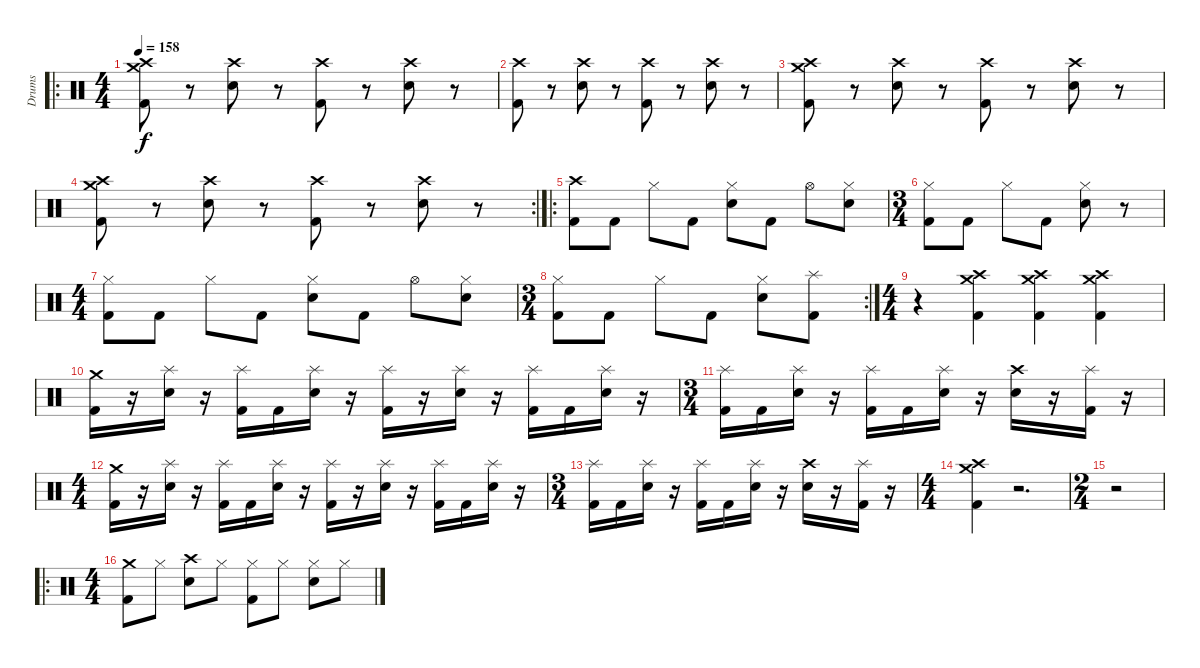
\track ("Drums" "Drums") {instrument percussion}
\staff {score}
\articulation defaults
\ro
\ts (4 4)
\tempo 158
\clef neutral
\ks c
("Crash high (hit)" "Crash medium (hit)" "Kick (hit) 2").8{dy f} r.8 ("Crash high (hit)" "Snare (hit) 2").8 r.8 ("Crash high (hit)" "Kick (hit) 2").8 r.8 ("Crash high (hit)" "Snare (hit) 2").8 r.8 |
("Crash high (hit)" "Kick (hit) 2").8 r.8 ("Crash high (hit)" "Snare (hit) 2").8 r.8 ("Crash high (hit)" "Kick (hit) 2").8 r.8 ("Crash high (hit)" "Snare (hit) 2").8 r.8 |
("Crash high (hit)" "Crash medium (hit)" "Kick (hit) 2").8 r.8 ("Crash high (hit)" "Snare (hit) 2").8 r.8 ("Crash high (hit)" "Kick (hit) 2").8 r.8 ("Crash high (hit)" "Snare (hit) 2").8 r.8 |
\rc 2
("Crash high (hit)" "Crash medium (hit)" "Kick (hit) 2").8 r.8 ("Crash high (hit)" "Snare (hit) 2").8 r.8 ("Crash high (hit)" "Kick (hit) 2").8 r.8 ("Crash high (hit)" "Snare (hit) 2").8 r.8 |
\ro
("Crash high (hit)" "Kick (hit) 2").8 "Kick (hit) 2".8 "Hi-Hat (closed)".8 "Kick (hit) 2".8 ("Hi-Hat (closed)" "Snare (hit) 2").8 "Kick (hit) 2".8 "Hi-Hat (open)".8 ("Hi-Hat (closed)" "Snare (hit) 2").8 |
\ts (3 4)
("Hi-Hat (closed)" "Kick (hit) 2").8 "Kick (hit) 2".8 "Hi-Hat (closed)".8 "Kick (hit) 2".8 ("Hi-Hat (closed)" "Snare (hit) 2").8 r.8 |
\ts (4 4)
("Hi-Hat (closed)" "Kick (hit) 2").8 "Kick (hit) 2".8 "Hi-Hat (closed)".8 "Kick (hit) 2".8 ("Hi-Hat (closed)" "Snare (hit) 2").8 "Kick (hit) 2".8 "Hi-Hat (open)".8 ("Hi-Hat (closed)" "Snare (hit) 2").8 |
\rc 2
\ts (3 4)
("Hi-Hat (closed)" "Kick (hit) 2").8 "Kick (hit) 2".8 "Hi-Hat (closed)".8 "Kick (hit) 2".8 ("Hi-Hat (closed)" "Snare (hit) 2").8 ("Splash (hit)" "Kick (hit) 2").8 |
\ts (4 4)
r.4 ("Crash medium (hit)" "Crash high (hit)" "Kick (hit) 2").4 ("Crash medium (hit)" "Crash high (hit)" "Kick (hit) 2").4 ("Crash medium (hit)" "Crash high (hit)" "Kick (hit) 2").4 |
("Crash medium (hit)" "Kick (hit) 2").16 r.16 ("Splash (hit)" "Snare (hit) 2").16 r.16 ("Splash (hit)" "Kick (hit) 2").16 "Kick (hit) 2".16 ("Splash (hit)" "Snare (hit) 2").16 r.16 ("Splash (hit)" "Kick (hit) 2").16 r.16 ("Splash (hit)" "Snare (hit) 2").16 r.16 ("Splash (hit)" "Kick (hit) 2").16 "Kick (hit) 2".16 ("Splash (hit)" "Snare (hit) 2").16 r.16 |
\ts (3 4)
("Splash (hit)" "Kick (hit) 2").16 "Kick (hit) 2".16 ("Splash (hit)" "Snare (hit) 2").16 r.16 ("Splash (hit)" "Kick (hit) 2").16 "Kick (hit) 2".16 ("Splash (hit)" "Snare (hit) 2").16 r.16 ("Crash high (hit)" "Snare (hit) 2").16 r.16 ("Splash (hit)" "Kick (hit) 2").16 r.16 |
\ts (4 4)
("Crash medium (hit)" "Kick (hit) 2").16 r.16 ("Splash (hit)" "Snare (hit) 2").16 r.16 ("Splash (hit)" "Kick (hit) 2").16 "Kick (hit) 2".16 ("Splash (hit)" "Snare (hit) 2").16 r.16 ("Splash (hit)" "Kick (hit) 2").16 r.16 ("Splash (hit)" "Snare (hit) 2").16 r.16 ("Splash (hit)" "Kick (hit) 2").16 "Kick (hit) 2".16 ("Splash (hit)" "Snare (hit) 2").16 r.16 |
\ts (3 4)
("Splash (hit)" "Kick (hit) 2").16 "Kick (hit) 2".16 ("Splash (hit)" "Snare (hit) 2").16 r.16 ("Splash (hit)" "Kick (hit) 2").16 "Kick (hit) 2".16 ("Splash (hit)" "Snare (hit) 2").16 r.16 ("Crash high (hit)" "Snare (hit) 2").16 r.16 ("Splash (hit)" "Kick (hit) 2").16 r.16 |
\ts (4 4)
("Crash high (hit)" "Crash medium (hit)" "Kick (hit) 2").4 r.2{d} |
\ts (2 4)
r.2 |
\ro
\ts (4 4)
("Crash medium (hit)" "Kick (hit) 2").8 "Hi-Hat (closed)".8 ("Crash high (hit)" "Snare (hit) 2").8 "Hi-Hat (closed)".8 ("Hi-Hat (closed)" "Kick (hit) 2").8 "Hi-Hat (closed)".8 ("Hi-Hat (closed)" "Snare (hit) 2").8 "Hi-Hat (closed)".8
